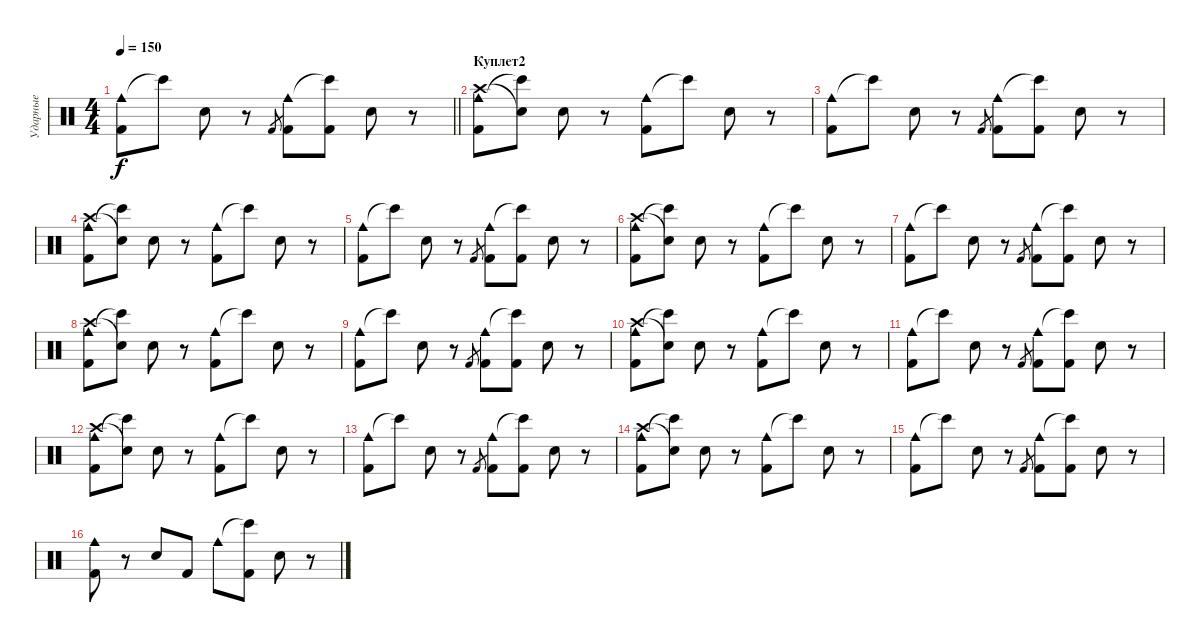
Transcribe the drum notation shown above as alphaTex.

\track ("Ударные" "Ударные") {instrument percussion}
\staff {score}
\articulation defaults
\ts (4 4)
\tempo 150
\clef neutral
\barLineRight lightlight
\ks c
("Cowbell medium (hit)" "Kick (hit) 2").8{dy f} "Bongo High (hit)"{t}.8 "Snare (hit) 2".8 r.8 "Kick (hit) 2".8{gr} ("Cowbell medium (hit)" "Kick (hit) 2").8 ("Bongo High (hit)"{t} "Kick (hit) 2").8 "Snare (hit) 2".8 r.8 |
\section ("" "Куплет2")
("Cowbell medium (hit)" "Crash high (hit)" "Kick (hit) 2").8 ("Bongo High (hit)"{t} "Snare (hit)"{t}).8 "Snare (hit) 2".8 r.8 ("Cowbell medium (hit)" "Kick (hit) 2").8 "Bongo High (hit)"{t}.8 "Snare (hit) 2".8 r.8 |
("Cowbell medium (hit)" "Kick (hit) 2").8 "Bongo High (hit)"{t}.8 "Snare (hit) 2".8 r.8 "Kick (hit) 2".8{gr} ("Cowbell medium (hit)" "Kick (hit) 2").8 ("Bongo High (hit)"{t} "Kick (hit) 2").8 "Snare (hit) 2".8 r.8 |
("Cowbell medium (hit)" "Crash high (hit)" "Kick (hit) 2").8 ("Bongo High (hit)"{t} "Snare (hit)"{t}).8 "Snare (hit) 2".8 r.8 ("Cowbell medium (hit)" "Kick (hit) 2").8 "Bongo High (hit)"{t}.8 "Snare (hit) 2".8 r.8 |
("Cowbell medium (hit)" "Kick (hit) 2").8 "Bongo High (hit)"{t}.8 "Snare (hit) 2".8 r.8 "Kick (hit) 2".8{gr} ("Cowbell medium (hit)" "Kick (hit) 2").8 ("Bongo High (hit)"{t} "Kick (hit) 2").8 "Snare (hit) 2".8 r.8 |
("Cowbell medium (hit)" "Crash high (hit)" "Kick (hit) 2").8 ("Bongo High (hit)"{t} "Snare (hit)"{t}).8 "Snare (hit) 2".8 r.8 ("Cowbell medium (hit)" "Kick (hit) 2").8 "Bongo High (hit)"{t}.8 "Snare (hit) 2".8 r.8 |
("Cowbell medium (hit)" "Kick (hit) 2").8 "Bongo High (hit)"{t}.8 "Snare (hit) 2".8 r.8 "Kick (hit) 2".8{gr} ("Cowbell medium (hit)" "Kick (hit) 2").8 ("Bongo High (hit)"{t} "Kick (hit) 2").8 "Snare (hit) 2".8 r.8 |
("Cowbell medium (hit)" "Crash high (hit)" "Kick (hit) 2").8 ("Bongo High (hit)"{t} "Snare (hit)"{t}).8 "Snare (hit) 2".8 r.8 ("Cowbell medium (hit)" "Kick (hit) 2").8 "Bongo High (hit)"{t}.8 "Snare (hit) 2".8 r.8 |
("Cowbell medium (hit)" "Kick (hit) 2").8 "Bongo High (hit)"{t}.8 "Snare (hit) 2".8 r.8 "Kick (hit) 2".8{gr} ("Cowbell medium (hit)" "Kick (hit) 2").8 ("Bongo High (hit)"{t} "Kick (hit) 2").8 "Snare (hit) 2".8 r.8 |
("Cowbell medium (hit)" "Crash high (hit)" "Kick (hit) 2").8 ("Bongo High (hit)"{t} "Snare (hit)"{t}).8 "Snare (hit) 2".8 r.8 ("Cowbell medium (hit)" "Kick (hit) 2").8 "Bongo High (hit)"{t}.8 "Snare (hit) 2".8 r.8 |
("Cowbell medium (hit)" "Kick (hit) 2").8 "Bongo High (hit)"{t}.8 "Snare (hit) 2".8 r.8 "Kick (hit) 2".8{gr} ("Cowbell medium (hit)" "Kick (hit) 2").8 ("Bongo High (hit)"{t} "Kick (hit) 2").8 "Snare (hit) 2".8 r.8 |
("Cowbell medium (hit)" "Crash high (hit)" "Kick (hit) 2").8 ("Bongo High (hit)"{t} "Snare (hit)"{t}).8 "Snare (hit) 2".8 r.8 ("Cowbell medium (hit)" "Kick (hit) 2").8 "Bongo High (hit)"{t}.8 "Snare (hit) 2".8 r.8 |
("Cowbell medium (hit)" "Kick (hit) 2").8 "Bongo High (hit)"{t}.8 "Snare (hit) 2".8 r.8 "Kick (hit) 2".8{gr} ("Cowbell medium (hit)" "Kick (hit) 2").8 ("Bongo High (hit)"{t} "Kick (hit) 2").8 "Snare (hit) 2".8 r.8 |
("Cowbell medium (hit)" "Crash high (hit)" "Kick (hit) 2").8 ("Bongo High (hit)"{t} "Snare (hit)"{t}).8 "Snare (hit) 2".8 r.8 ("Cowbell medium (hit)" "Kick (hit) 2").8 "Bongo High (hit)"{t}.8 "Snare (hit) 2".8 r.8 |
("Cowbell medium (hit)" "Kick (hit) 2").8 "Bongo High (hit)"{t}.8 "Snare (hit) 2".8 r.8 "Kick (hit) 2".8{gr} ("Cowbell medium (hit)" "Kick (hit) 2").8 ("Bongo High (hit)"{t} "Kick (hit) 2").8 "Snare (hit) 2".8 r.8 |
("Cowbell medium (hit)" "Kick (hit) 2").8 r.8 "Snare (hit) 2".8 "Kick (hit) 2".8 "Cowbell medium (hit)".8 ("Bongo High (hit)"{t} "Kick (hit) 2").8 "Snare (hit) 2".8 r.8
